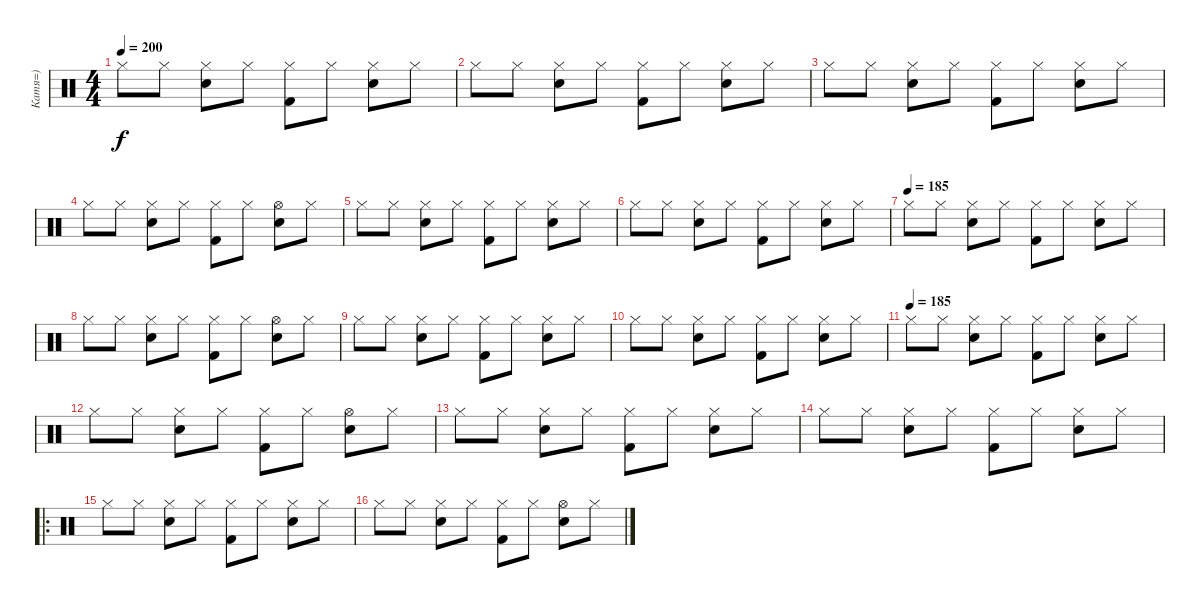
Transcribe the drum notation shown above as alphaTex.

\track ("Катя=)" "Катя=)") {instrument percussion}
\staff {score}
\articulation defaults
\ts (4 4)
\tempo 200
\clef neutral
\ks c "Hi-Hat (closed)".8{dy f} "Hi-Hat (closed)".8
("Hi-Hat (closed)" "Electric Snare (hit)").8 "Hi-Hat (closed)".8 ("Hi-Hat (closed)" "Kick (hit) 2").8 "Hi-Hat (closed)".8 ("Hi-Hat (closed)" "Electric Snare (hit)").8 "Hi-Hat (closed)".8 |
"Hi-Hat (closed)".8 "Hi-Hat (closed)".8 ("Hi-Hat (closed)" "Electric Snare (hit)").8 "Hi-Hat (closed)".8 ("Hi-Hat (closed)" "Kick (hit) 2").8 "Hi-Hat (closed)".8 ("Hi-Hat (closed)" "Electric Snare (hit)").8 "Hi-Hat (closed)".8 |
"Hi-Hat (closed)".8 "Hi-Hat (closed)".8 ("Hi-Hat (closed)" "Electric Snare (hit)").8 "Hi-Hat (closed)".8 ("Hi-Hat (closed)" "Kick (hit) 2").8 "Hi-Hat (closed)".8 ("Hi-Hat (closed)" "Electric Snare (hit)").8 "Hi-Hat (closed)".8 |
"Hi-Hat (closed)".8 "Hi-Hat (closed)".8 ("Hi-Hat (closed)" "Electric Snare (hit)").8 "Hi-Hat (closed)".8 ("Hi-Hat (closed)" "Kick (hit) 2").8 "Hi-Hat (closed)".8 ("Hi-Hat (open)" "Electric Snare (hit)").8 "Hi-Hat (closed)".8 |
"Hi-Hat (closed)".8 "Hi-Hat (closed)".8 ("Hi-Hat (closed)" "Electric Snare (hit)").8 "Hi-Hat (closed)".8 ("Hi-Hat (closed)" "Kick (hit) 2").8 "Hi-Hat (closed)".8 ("Hi-Hat (closed)" "Electric Snare (hit)").8 "Hi-Hat (closed)".8 |
"Hi-Hat (closed)".8 "Hi-Hat (closed)".8 ("Hi-Hat (closed)" "Electric Snare (hit)").8 "Hi-Hat (closed)".8 ("Hi-Hat (closed)" "Kick (hit) 2").8 "Hi-Hat (closed)".8 ("Hi-Hat (closed)" "Electric Snare (hit)").8 "Hi-Hat (closed)".8 |
\tempo (185)
"Hi-Hat (closed)".8 "Hi-Hat (closed)".8 ("Hi-Hat (closed)" "Electric Snare (hit)").8 "Hi-Hat (closed)".8 ("Hi-Hat (closed)" "Kick (hit) 2").8 "Hi-Hat (closed)".8 ("Hi-Hat (closed)" "Electric Snare (hit)").8 "Hi-Hat (closed)".8 |
"Hi-Hat (closed)".8 "Hi-Hat (closed)".8 ("Hi-Hat (closed)" "Electric Snare (hit)").8 "Hi-Hat (closed)".8 ("Hi-Hat (closed)" "Kick (hit) 2").8 "Hi-Hat (closed)".8 ("Hi-Hat (open)" "Electric Snare (hit)").8 "Hi-Hat (closed)".8 |
"Hi-Hat (closed)".8 "Hi-Hat (closed)".8 ("Hi-Hat (closed)" "Electric Snare (hit)").8 "Hi-Hat (closed)".8 ("Hi-Hat (closed)" "Kick (hit) 2").8 "Hi-Hat (closed)".8 ("Hi-Hat (closed)" "Electric Snare (hit)").8 "Hi-Hat (closed)".8 |
"Hi-Hat (closed)".8 "Hi-Hat (closed)".8 ("Hi-Hat (closed)" "Electric Snare (hit)").8 "Hi-Hat (closed)".8 ("Hi-Hat (closed)" "Kick (hit) 2").8 "Hi-Hat (closed)".8 ("Hi-Hat (closed)" "Electric Snare (hit)").8 "Hi-Hat (closed)".8 |
\tempo 180
\tempo (185)
"Hi-Hat (closed)".8 "Hi-Hat (closed)".8 ("Hi-Hat (closed)" "Electric Snare (hit)").8 "Hi-Hat (closed)".8 ("Hi-Hat (closed)" "Kick (hit) 2").8 "Hi-Hat (closed)".8 ("Hi-Hat (closed)" "Electric Snare (hit)").8 "Hi-Hat (closed)".8 |
"Hi-Hat (closed)".8 "Hi-Hat (closed)".8 ("Hi-Hat (closed)" "Electric Snare (hit)").8 "Hi-Hat (closed)".8 ("Hi-Hat (closed)" "Kick (hit) 2").8 "Hi-Hat (closed)".8 ("Hi-Hat (open)" "Electric Snare (hit)").8 "Hi-Hat (closed)".8 |
"Hi-Hat (closed)".8 "Hi-Hat (closed)".8 ("Hi-Hat (closed)" "Electric Snare (hit)").8 "Hi-Hat (closed)".8 ("Hi-Hat (closed)" "Kick (hit) 2").8 "Hi-Hat (closed)".8 ("Hi-Hat (closed)" "Electric Snare (hit)").8 "Hi-Hat (closed)".8 |
"Hi-Hat (closed)".8 "Hi-Hat (closed)".8 ("Hi-Hat (closed)" "Electric Snare (hit)").8 "Hi-Hat (closed)".8 ("Hi-Hat (closed)" "Kick (hit) 2").8 "Hi-Hat (closed)".8 ("Hi-Hat (closed)" "Electric Snare (hit)").8 "Hi-Hat (closed)".8 |
\ro "Hi-Hat (closed)".8 "Hi-Hat (closed)".8
("Hi-Hat (closed)" "Electric Snare (hit)").8 "Hi-Hat (closed)".8 ("Hi-Hat (closed)" "Kick (hit) 2").8 "Hi-Hat (closed)".8 ("Hi-Hat (closed)" "Electric Snare (hit)").8 "Hi-Hat (closed)".8 |
"Hi-Hat (closed)".8 "Hi-Hat (closed)".8 ("Hi-Hat (closed)" "Electric Snare (hit)").8 "Hi-Hat (closed)".8 ("Hi-Hat (closed)" "Kick (hit) 2").8 "Hi-Hat (closed)".8 ("Hi-Hat (open)" "Electric Snare (hit)").8 "Hi-Hat (closed)".8
